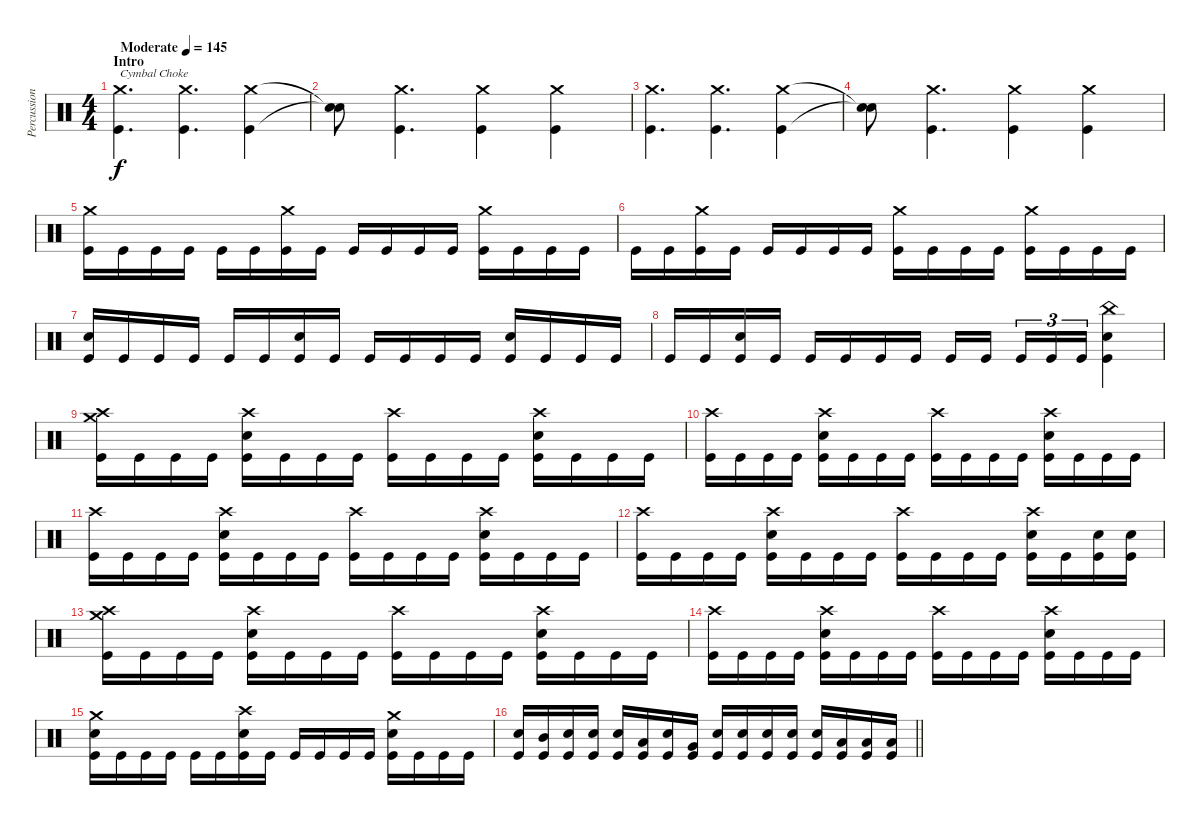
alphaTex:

\track ("Percussion" "Percussion") {instrument percussion}
\staff {score}
\articulation defaults
\ts (4 4)
\section ("" "Intro")
\tempo (145 "Moderate")
\clef neutral
\ks c
("Crash medium (hit)" "Kick (hit)").4{d txt "Cymbal Choke" dy f} ("Crash medium (hit)" "Kick (hit)").4{d} ("Crash medium (hit)" "Kick (hit)").4 |
("Snare (hit)"{t} "Snare (hit)"{t}).8 ("Crash medium (hit)" "Kick (hit)").4{d} ("Crash medium (hit)" "Kick (hit)").4 ("Crash medium (hit)" "Kick (hit)").4 |
("Crash medium (hit)" "Kick (hit)").4{d} ("Crash medium (hit)" "Kick (hit)").4{d} ("Crash medium (hit)" "Kick (hit)").4 |
("Snare (hit)"{t} "Snare (hit)"{t}).8 ("Crash medium (hit)" "Kick (hit)").4{d} ("Crash medium (hit)" "Kick (hit)").4 ("Crash medium (hit)" "Kick (hit)").4 |
("Crash medium (hit)" "Kick (hit)").16 "Kick (hit)".16 "Kick (hit)".16 "Kick (hit)".16 "Kick (hit)".16 "Kick (hit)".16 ("Crash medium (hit)" "Kick (hit)").16 "Kick (hit)".16 "Kick (hit)".16 "Kick (hit)".16 "Kick (hit)".16 "Kick (hit)".16 ("Crash medium (hit)" "Kick (hit)").16 "Kick (hit)".16 "Kick (hit)".16 "Kick (hit)".16 |
"Kick (hit)".16 "Kick (hit)".16 ("Crash medium (hit)" "Kick (hit)").16 "Kick (hit)".16 "Kick (hit)".16 "Kick (hit)".16 "Kick (hit)".16 "Kick (hit)".16 ("Crash medium (hit)" "Kick (hit)").16 "Kick (hit)".16 "Kick (hit)".16 "Kick (hit)".16 ("Crash medium (hit)" "Kick (hit)").16 "Kick (hit)".16 "Kick (hit)".16 "Kick (hit)".16 |
("Electric Snare (hit)" "Kick (hit)").16 "Kick (hit)".16 "Kick (hit)".16 "Kick (hit)".16 "Kick (hit)".16 "Kick (hit)".16 ("Electric Snare (hit)" "Kick (hit)").16 "Kick (hit)".16 "Kick (hit)".16 "Kick (hit)".16 "Kick (hit)".16 "Kick (hit)".16 ("Electric Snare (hit)" "Kick (hit)").16 "Kick (hit)".16 "Kick (hit)".16 "Kick (hit)".16 |
"Kick (hit)".16 "Kick (hit)".16 ("Electric Snare (hit)" "Kick (hit)").16 "Kick (hit)".16 "Kick (hit)".16 "Kick (hit)".16 "Kick (hit)".16 "Kick (hit)".16 "Kick (hit)".16 "Kick (hit)".16{beam splitsecondary} "Kick (hit)".16{tu (3 2)} "Kick (hit)".16{tu (3 2)} "Kick (hit)".16{tu (3 2)} ("China (hit)" "Electric Snare (hit)" "Kick (hit)").4 |
("Crash medium (hit)" "Crash high (hit)" "Kick (hit)").16 "Kick (hit)".16 "Kick (hit)".16 "Kick (hit)".16 ("Crash high (hit)" "Electric Snare (hit)" "Kick (hit)").16 "Kick (hit)".16 "Kick (hit)".16 "Kick (hit)".16 ("Crash high (hit)" "Kick (hit)").16 "Kick (hit)".16 "Kick (hit)".16 "Kick (hit)".16 ("Crash high (hit)" "Electric Snare (hit)" "Kick (hit)").16 "Kick (hit)".16 "Kick (hit)".16 "Kick (hit)".16 |
("Crash high (hit)" "Kick (hit)").16 "Kick (hit)".16 "Kick (hit)".16 "Kick (hit)".16 ("Crash high (hit)" "Electric Snare (hit)" "Kick (hit)").16 "Kick (hit)".16 "Kick (hit)".16 "Kick (hit)".16 ("Crash high (hit)" "Kick (hit)").16 "Kick (hit)".16 "Kick (hit)".16 "Kick (hit)".16 ("Crash high (hit)" "Electric Snare (hit)" "Kick (hit)").16 "Kick (hit)".16 "Kick (hit)".16 "Kick (hit)".16 |
("Crash high (hit)" "Kick (hit)").16 "Kick (hit)".16 "Kick (hit)".16 "Kick (hit)".16 ("Crash high (hit)" "Electric Snare (hit)" "Kick (hit)").16 "Kick (hit)".16 "Kick (hit)".16 "Kick (hit)".16 ("Crash high (hit)" "Kick (hit)").16 "Kick (hit)".16 "Kick (hit)".16 "Kick (hit)".16 ("Crash high (hit)" "Electric Snare (hit)" "Kick (hit)").16 "Kick (hit)".16 "Kick (hit)".16 "Kick (hit)".16 |
("Crash high (hit)" "Kick (hit)").16 "Kick (hit)".16 "Kick (hit)".16 "Kick (hit)".16 ("Crash high (hit)" "Electric Snare (hit)" "Kick (hit)").16 "Kick (hit)".16 "Kick (hit)".16 "Kick (hit)".16 ("Crash high (hit)" "Kick (hit)").16 "Kick (hit)".16 "Kick (hit)".16 "Kick (hit)".16 ("Crash high (hit)" "Electric Snare (hit)" "Kick (hit)").16 "Kick (hit)".16 ("Electric Snare (hit)" "Kick (hit)").16 ("Electric Snare (hit)" "Kick (hit)").16 |
("Crash medium (hit)" "Crash high (hit)" "Kick (hit)").16 "Kick (hit)".16 "Kick (hit)".16 "Kick (hit)".16 ("Crash high (hit)" "Electric Snare (hit)" "Kick (hit)").16 "Kick (hit)".16 "Kick (hit)".16 "Kick (hit)".16 ("Crash high (hit)" "Kick (hit)").16 "Kick (hit)".16 "Kick (hit)".16 "Kick (hit)".16 ("Crash high (hit)" "Electric Snare (hit)" "Kick (hit)").16 "Kick (hit)".16 "Kick (hit)".16 "Kick (hit)".16 |
("Crash high (hit)" "Kick (hit)").16 "Kick (hit)".16 "Kick (hit)".16 "Kick (hit)".16 ("Crash high (hit)" "Electric Snare (hit)" "Kick (hit)").16 "Kick (hit)".16 "Kick (hit)".16 "Kick (hit)".16 ("Crash high (hit)" "Kick (hit)").16 "Kick (hit)".16 "Kick (hit)".16 "Kick (hit)".16 ("Crash high (hit)" "Electric Snare (hit)" "Kick (hit)").16 "Kick (hit)".16 "Kick (hit)".16 "Kick (hit)".16 |
("Crash medium (hit)" "Electric Snare (hit)" "Kick (hit)").16 "Kick (hit)".16 "Kick (hit)".16 "Kick (hit)".16 "Kick (hit)".16 "Kick (hit)".16 ("Crash high (hit)" "Electric Snare (hit)" "Kick (hit)").16 "Kick (hit)".16 "Kick (hit)".16 "Kick (hit)".16 "Kick (hit)".16 "Kick (hit)".16 ("Crash medium (hit)" "Electric Snare (hit)" "Kick (hit)").16 "Kick (hit)".16 "Kick (hit)".16 "Kick (hit)".16 |
\barLineRight lightlight
("Electric Snare (hit)" "Kick (hit)").16 ("Mid Tom (hit)" "Kick (hit)").16 ("Electric Snare (hit)" "Kick (hit)").16 ("Electric Snare (hit)" "Kick (hit)").16 ("Electric Snare (hit)" "Kick (hit)").16 ("Low Tom (hit)" "Kick (hit)").16 ("Electric Snare (hit)" "Kick (hit)").16 ("Very Low Tom (hit)" "Kick (hit)").16 ("Electric Snare (hit)" "Kick (hit)").16 ("Electric Snare (hit)" "Kick (hit)").16 ("Electric Snare (hit)" "Kick (hit)").16 ("Electric Snare (hit)" "Kick (hit)").16 ("Electric Snare (hit)" "Kick (hit)").16 ("Low Floor Tom (hit)" "Kick (hit)").16 ("Low Floor Tom (hit)" "Kick (hit)").16 ("Low Floor Tom (hit)" "Kick (hit)").16
